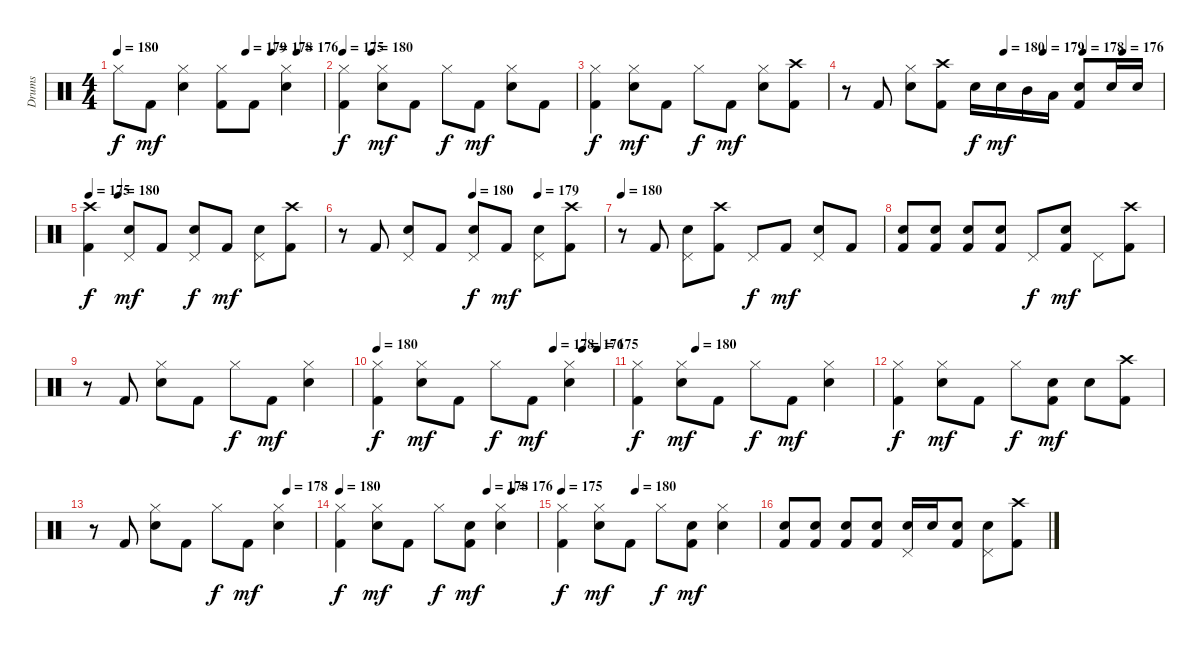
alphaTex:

\track ("Drums" "Drums") {instrument percussion}
\staff {score}
\articulation defaults
\ts (4 4)
\tempo 180
\tempo (179 0.625)
\tempo (178 0.75)
\tempo (176 0.875)
\clef neutral
\ks c "Hi-Hat (closed)".8{dy f} "Kick (hit) 2".8{dy mf}
("Snare (hit) 2" "Hi-Hat (closed)").4 ("Hi-Hat (closed)" "Kick (hit) 2").8 "Kick (hit) 2".8 ("Snare (hit) 2" "Hi-Hat (closed)").4 |
\tempo 175
\tempo (180 0.125)
("Hi-Hat (closed)" "Kick (hit) 2").4{dy f} ("Snare (hit) 2" "Hi-Hat (closed)").8{dy mf} "Kick (hit) 2".8 "Hi-Hat (closed)".8{dy f} "Kick (hit) 2".8{dy mf} ("Snare (hit) 2" "Hi-Hat (closed)").8 "Kick (hit) 2".8 |
("Hi-Hat (closed)" "Kick (hit) 2").4{dy f} ("Snare (hit) 2" "Hi-Hat (closed)").8{dy mf} "Kick (hit) 2".8 "Hi-Hat (closed)".8{dy f} "Kick (hit) 2".8{dy mf} ("Snare (hit) 2" "Hi-Hat (closed)").8 ("Crash high (hit)" "Kick (hit) 2").8 |
\tempo (180 0.5)
\tempo (179 0.625)
\tempo (178 0.75)
\tempo (176 0.875)
r.8 "Kick (hit) 2".8 ("Snare (hit) 2" "Hi-Hat (closed)").8 ("Crash high (hit)" "Kick (hit) 2").8 "Snare (hit) 2".16{dy f} "Snare (hit) 2".16{dy mf} "Mid Tom (hit)".16 "Low Tom (hit)".16 ("Snare (hit) 2" "Kick (hit) 2").8 "Snare (hit) 2".16 "Snare (hit) 2".16 |
\tempo 175
\tempo (180 0.125)
("Crash high (hit)" "Kick (hit) 2").4{dy f} ("Snare (hit) 2" "Pedal Hi-Hat (hit)").8{dy mf} "Kick (hit) 2".8 ("Snare (hit) 2" "Pedal Hi-Hat (hit)").8{dy f} "Kick (hit) 2".8{dy mf} ("Snare (hit) 2" "Pedal Hi-Hat (hit)").8 ("Crash high (hit)" "Kick (hit) 2").8 |
\tempo (180 0.5)
\tempo (179 0.75)
r.8 "Kick (hit) 2".8 ("Snare (hit) 2" "Pedal Hi-Hat (hit)").8 "Kick (hit) 2".8 ("Snare (hit) 2" "Pedal Hi-Hat (hit)").8{dy f} "Kick (hit) 2".8{dy mf} ("Snare (hit) 2" "Pedal Hi-Hat (hit)").8 ("Crash high (hit)" "Kick (hit) 2").8 |
\tempo 180
r.8 "Kick (hit) 2".8 ("Snare (hit) 2" "Pedal Hi-Hat (hit)").8 ("Crash high (hit)" "Kick (hit) 2").8 "Pedal Hi-Hat (hit)".8{dy f} "Kick (hit) 2".8{dy mf} ("Snare (hit) 2" "Pedal Hi-Hat (hit)").8 "Kick (hit) 2".8 |
("Snare (hit) 2" "Kick (hit) 2").8 ("Snare (hit) 2" "Kick (hit) 2").8 ("Snare (hit) 2" "Kick (hit) 2").8 ("Snare (hit) 2" "Kick (hit) 2").8 "Pedal Hi-Hat (hit)".8{dy f} ("Snare (hit) 2" "Kick (hit) 2").8{dy mf} "Pedal Hi-Hat (hit)".8 ("Crash high (hit)" "Kick (hit) 2").8 |
r.8 "Kick (hit) 2".8 ("Snare (hit) 2" "Hi-Hat (closed)").8 "Kick (hit) 2".8 "Hi-Hat (closed)".8{dy f} "Kick (hit) 2".8{dy mf} ("Snare (hit) 2" "Hi-Hat (closed)").4 |
\tempo 180
\tempo (178 0.75)
\tempo (176 0.875)
\tempo (175 0.9375)
("Hi-Hat (closed)" "Kick (hit) 2").4{dy f} ("Snare (hit) 2" "Hi-Hat (closed)").8{dy mf} "Kick (hit) 2".8 "Hi-Hat (closed)".8{dy f} "Kick (hit) 2".8{dy mf} ("Snare (hit) 2" "Hi-Hat (closed)").4 |
\tempo (180 0.25)
("Hi-Hat (closed)" "Kick (hit) 2").4{dy f} ("Snare (hit) 2" "Hi-Hat (closed)").8{dy mf} "Kick (hit) 2".8 "Hi-Hat (closed)".8{dy f} "Kick (hit) 2".8{dy mf} ("Snare (hit) 2" "Hi-Hat (closed)").4 |
("Hi-Hat (closed)" "Kick (hit) 2").4{dy f} ("Snare (hit) 2" "Hi-Hat (closed)").8{dy mf} "Kick (hit) 2".8 "Hi-Hat (closed)".8{dy f} ("Snare (hit) 2" "Kick (hit) 2").8{dy mf} "Snare (hit) 2".8 ("Crash high (hit)" "Kick (hit) 2").8 |
\tempo (178 0.875)
r.8 "Kick (hit) 2".8 ("Snare (hit) 2" "Hi-Hat (closed)").8 "Kick (hit) 2".8 "Hi-Hat (closed)".8{dy f} "Kick (hit) 2".8{dy mf} ("Snare (hit) 2" "Hi-Hat (closed)").4 |
\tempo 180
\tempo (178 0.75)
\tempo (176 0.875)
("Hi-Hat (closed)" "Kick (hit) 2").4{dy f} ("Snare (hit) 2" "Hi-Hat (closed)").8{dy mf} "Kick (hit) 2".8 "Hi-Hat (closed)".8{dy f} ("Snare (hit) 2" "Kick (hit) 2").8{dy mf} ("Snare (hit) 2" "Hi-Hat (closed)").4 |
\tempo 175
\tempo (180 0.375)
("Hi-Hat (closed)" "Kick (hit) 2").4{dy f} ("Snare (hit) 2" "Hi-Hat (closed)").8{dy mf} "Kick (hit) 2".8 "Hi-Hat (closed)".8{dy f} ("Snare (hit) 2" "Kick (hit) 2").8{dy mf} ("Snare (hit) 2" "Hi-Hat (closed)").4 |
("Snare (hit) 2" "Kick (hit) 2").8 ("Snare (hit) 2" "Kick (hit) 2").8 ("Snare (hit) 2" "Kick (hit) 2").8 ("Snare (hit) 2" "Kick (hit) 2").8 ("Snare (hit) 2" "Pedal Hi-Hat (hit)").16 "Snare (hit) 2".16 ("Snare (hit) 2" "Kick (hit) 2").8 ("Snare (hit) 2" "Pedal Hi-Hat (hit)").8 ("Crash high (hit)" "Kick (hit) 2").8
